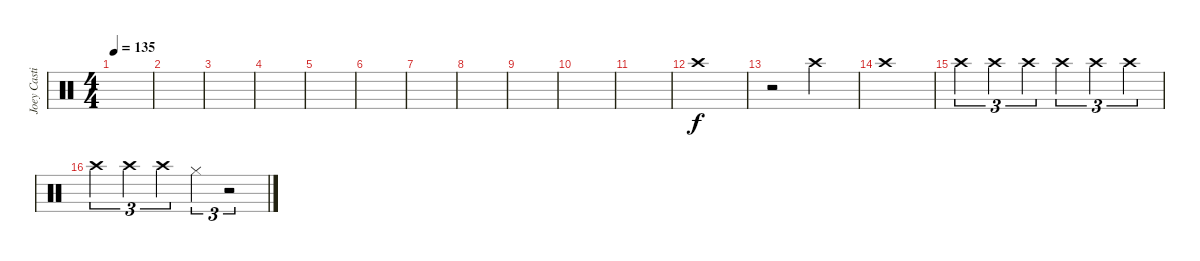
\track ("Joey Castillo" "Joey Casti") {instrument percussion}
\staff {score}
\articulation defaults
\ts (4 4)
\tempo 135
\clef neutral
\ks c
|
|
|
|
|
|
|
|
|
|
|
"Crash high (hit)".1 |
r.2 "Crash high (hit)".2 |
"Crash high (hit)".1 |
"Crash high (hit)".4{tu (3 2)} "Crash high (hit)".4{tu (3 2)} "Crash high (hit)".4{tu (3 2)} "Crash high (hit)".4{tu (3 2)} "Crash high (hit)".4{tu (3 2)} "Crash high (hit)".4{tu (3 2)} |
"Crash high (hit)".4{tu (3 2)} "Crash high (hit)".4{tu (3 2)} "Crash high (hit)".4{tu (3 2)} "Hi-Hat (closed)".4{tu (3 2)} r.2{tu (3 2)}
